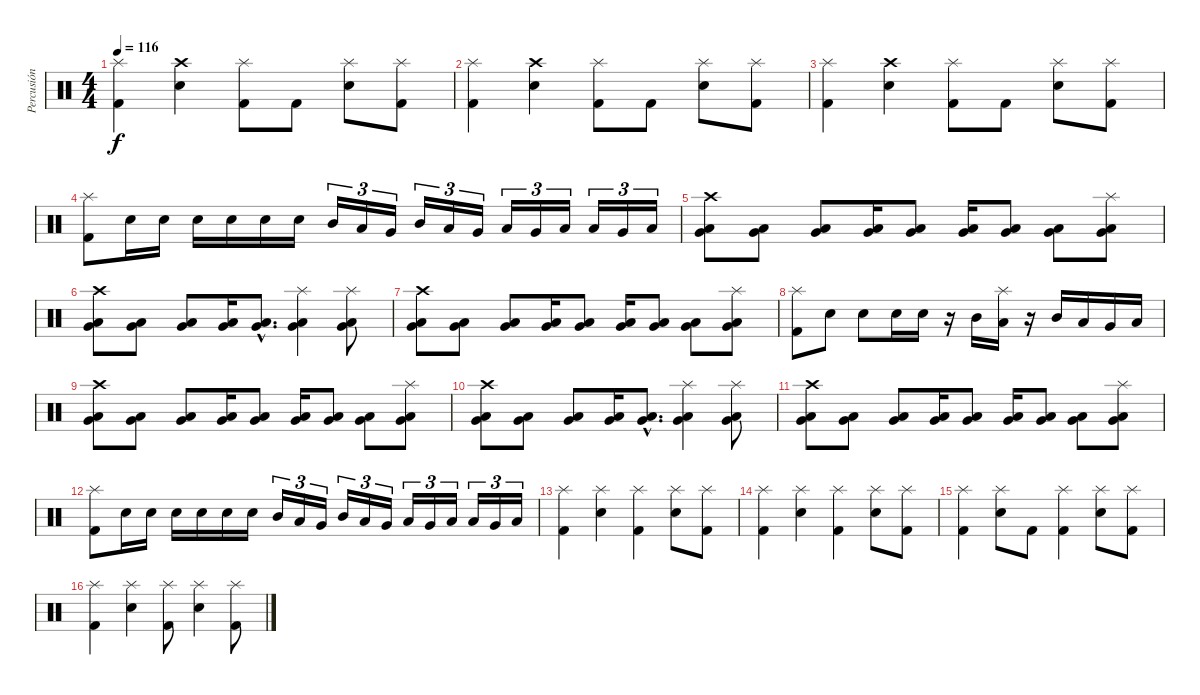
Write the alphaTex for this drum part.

\track ("Percusión" "Percusión") {instrument percussion}
\staff {score}
\articulation defaults
\ts (4 4)
\tempo 116
\clef neutral
\ks c
("Splash (hit)" "Kick (hit) 2").4{dy f} ("Crash high (hit)" "Snare (hit) 2").4 ("Splash (hit)" "Kick (hit) 2").8 "Kick (hit) 2".8 ("Splash (hit)" "Snare (hit) 2").8 ("Splash (hit)" "Kick (hit) 2").8 |
("Splash (hit)" "Kick (hit) 2").4 ("Crash high (hit)" "Snare (hit) 2").4 ("Splash (hit)" "Kick (hit) 2").8 "Kick (hit) 2".8 ("Splash (hit)" "Snare (hit) 2").8 ("Splash (hit)" "Kick (hit) 2").8 |
("Splash (hit)" "Kick (hit) 2").4 ("Crash high (hit)" "Snare (hit) 2").4 ("Splash (hit)" "Kick (hit) 2").8 "Kick (hit) 2".8 ("Splash (hit)" "Snare (hit) 2").8 ("Splash (hit)" "Kick (hit) 2").8 |
("Splash (hit)" "Kick (hit) 2").8 "Snare (hit) 2".16 "Snare (hit) 2".16 "Snare (hit) 2".16 "Snare (hit) 2".16 "Snare (hit) 2".16 "Snare (hit) 2".16 "Mid Tom (hit)".16{tu (3 2)} "Low Tom (hit)".16{tu (3 2)} "Very Low Tom (hit)".16{tu (3 2)} "Mid Tom (hit)".16{tu (3 2)} "Low Tom (hit)".16{tu (3 2)} "Very Low Tom (hit)".16{tu (3 2)} "Low Tom (hit)".16{tu (3 2)} "Very Low Tom (hit)".16{tu (3 2)} "Low Floor Tom (hit)".16{tu (3 2)} "Low Tom (hit)".16{tu (3 2)} "Very Low Tom (hit)".16{tu (3 2)} "Low Floor Tom (hit)".16{tu (3 2)} |
("Very Low Tom (hit)" "Low Tom (hit)" "Crash high (hit)").8 ("Very Low Tom (hit)" "Low Floor Tom (hit)").8 ("Very Low Tom (hit)" "Low Floor Tom (hit)").8 ("Very Low Tom (hit)" "Low Floor Tom (hit)").16 ("Very Low Tom (hit)" "Low Floor Tom (hit)").8 ("Very Low Tom (hit)" "Low Floor Tom (hit)").16 ("Very Low Tom (hit)" "Low Floor Tom (hit)").8 ("Very Low Tom (hit)" "Low Floor Tom (hit)").8 ("Very Low Tom (hit)" "Low Tom (hit)" "Splash (hit)").8 |
("Very Low Tom (hit)" "Low Tom (hit)" "Crash high (hit)").8 ("Very Low Tom (hit)" "Low Floor Tom (hit)").8 ("Very Low Tom (hit)" "Low Floor Tom (hit)").8 ("Very Low Tom (hit)" "Low Floor Tom (hit)").16 ("Very Low Tom (hit)"{hac} "Low Floor Tom (hit)"{hac}).8{d} ("Very Low Tom (hit)" "Low Floor Tom (hit)" "Splash (hit)").4 ("Very Low Tom (hit)" "Low Tom (hit)" "Splash (hit)").8 |
("Very Low Tom (hit)" "Low Tom (hit)" "Crash high (hit)").8 ("Very Low Tom (hit)" "Low Floor Tom (hit)").8 ("Very Low Tom (hit)" "Low Floor Tom (hit)").8 ("Very Low Tom (hit)" "Low Floor Tom (hit)").16 ("Very Low Tom (hit)" "Low Floor Tom (hit)").8 ("Very Low Tom (hit)" "Low Floor Tom (hit)").16 ("Very Low Tom (hit)" "Low Floor Tom (hit)").8 ("Very Low Tom (hit)" "Low Floor Tom (hit)").8 ("Very Low Tom (hit)" "Low Tom (hit)" "Splash (hit)").8 |
("Splash (hit)" "Kick (hit) 2").8 "Snare (hit) 2".8 "Snare (hit) 2".8 "Snare (hit) 2".16 "Snare (hit) 2".16 r.16 "Mid Tom (hit)".16 ("Low Tom (hit)" "Splash (hit)").16 r.16 "Mid Tom (hit)".16 "Low Tom (hit)".16 "Very Low Tom (hit)".16 "Low Floor Tom (hit)".16 |
("Very Low Tom (hit)" "Low Tom (hit)" "Crash high (hit)").8 ("Very Low Tom (hit)" "Low Floor Tom (hit)").8 ("Very Low Tom (hit)" "Low Floor Tom (hit)").8 ("Very Low Tom (hit)" "Low Floor Tom (hit)").16 ("Very Low Tom (hit)" "Low Floor Tom (hit)").8 ("Very Low Tom (hit)" "Low Floor Tom (hit)").16 ("Very Low Tom (hit)" "Low Floor Tom (hit)").8 ("Very Low Tom (hit)" "Low Floor Tom (hit)").8 ("Very Low Tom (hit)" "Low Tom (hit)" "Splash (hit)").8 |
("Very Low Tom (hit)" "Low Tom (hit)" "Crash high (hit)").8 ("Very Low Tom (hit)" "Low Floor Tom (hit)").8 ("Very Low Tom (hit)" "Low Floor Tom (hit)").8 ("Very Low Tom (hit)" "Low Floor Tom (hit)").16 ("Very Low Tom (hit)"{hac} "Low Floor Tom (hit)"{hac}).8{d} ("Very Low Tom (hit)" "Low Floor Tom (hit)" "Splash (hit)").4 ("Very Low Tom (hit)" "Low Tom (hit)" "Splash (hit)").8 |
("Very Low Tom (hit)" "Low Tom (hit)" "Crash high (hit)").8 ("Very Low Tom (hit)" "Low Floor Tom (hit)").8 ("Very Low Tom (hit)" "Low Floor Tom (hit)").8 ("Very Low Tom (hit)" "Low Floor Tom (hit)").16 ("Very Low Tom (hit)" "Low Floor Tom (hit)").8 ("Very Low Tom (hit)" "Low Floor Tom (hit)").16 ("Very Low Tom (hit)" "Low Floor Tom (hit)").8 ("Very Low Tom (hit)" "Low Floor Tom (hit)").8 ("Very Low Tom (hit)" "Low Tom (hit)" "Splash (hit)").8 |
("Splash (hit)" "Kick (hit) 2").8 "Snare (hit) 2".16 "Snare (hit) 2".16 "Snare (hit) 2".16 "Snare (hit) 2".16 "Snare (hit) 2".16 "Snare (hit) 2".16 "Mid Tom (hit)".16{tu (3 2)} "Low Tom (hit)".16{tu (3 2)} "Very Low Tom (hit)".16{tu (3 2)} "Mid Tom (hit)".16{tu (3 2)} "Low Tom (hit)".16{tu (3 2)} "Very Low Tom (hit)".16{tu (3 2)} "Low Tom (hit)".16{tu (3 2)} "Very Low Tom (hit)".16{tu (3 2)} "Low Floor Tom (hit)".16{tu (3 2)} "Low Tom (hit)".16{tu (3 2)} "Very Low Tom (hit)".16{tu (3 2)} "Low Floor Tom (hit)".16{tu (3 2)} |
("Splash (hit)" "Kick (hit) 2").4 ("Splash (hit)" "Snare (hit) 2").4 ("Splash (hit)" "Kick (hit) 2").4 ("Splash (hit)" "Snare (hit) 2").8 ("Splash (hit)" "Kick (hit) 2").8 |
("Splash (hit)" "Kick (hit) 2").4 ("Splash (hit)" "Snare (hit) 2").4 ("Splash (hit)" "Kick (hit) 2").4 ("Splash (hit)" "Snare (hit) 2").8 ("Splash (hit)" "Kick (hit) 2").8 |
("Splash (hit)" "Kick (hit) 2").4 ("Splash (hit)" "Snare (hit) 2").8 "Kick (hit) 2".8 ("Splash (hit)" "Kick (hit) 2").4 ("Splash (hit)" "Snare (hit) 2").8 ("Splash (hit)" "Kick (hit) 2").8 |
("Splash (hit)" "Kick (hit) 2").4 ("Splash (hit)" "Snare (hit) 2").4 ("Splash (hit)" "Kick (hit) 2").8 ("Splash (hit)" "Snare (hit) 2").4 ("Splash (hit)" "Kick (hit) 2").8
